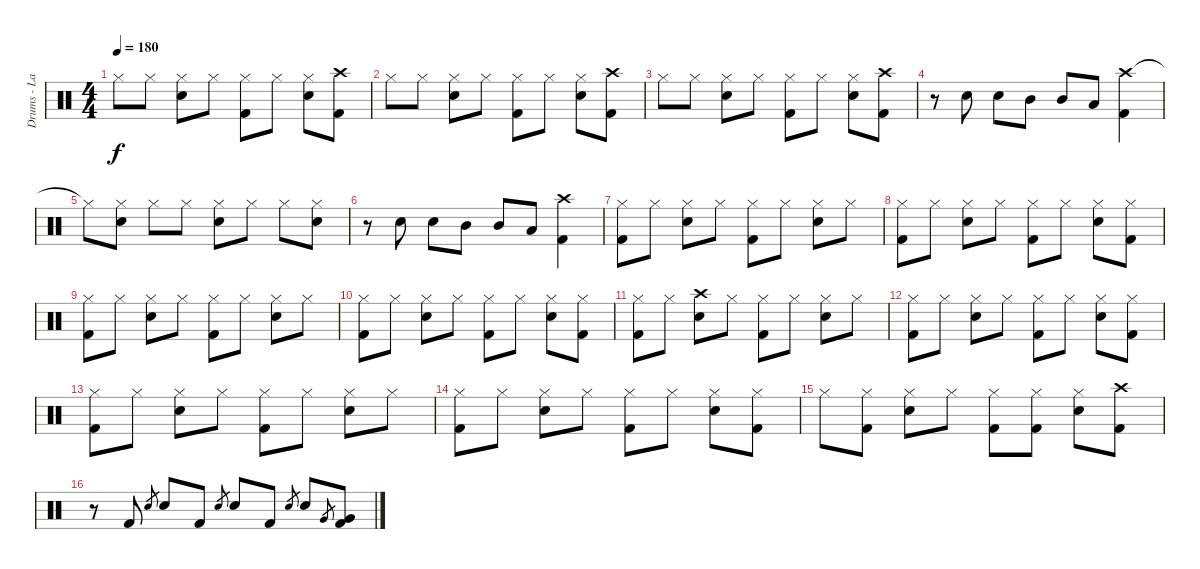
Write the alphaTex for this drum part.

\track ("Drums - Lars" "Drums - La") {instrument percussion}
\staff {score}
\articulation defaults
\ts (4 4)
\tempo 180
\clef neutral
\ks c "Hi-Hat (closed)".8{dy f} "Hi-Hat (closed)".8
("Hi-Hat (closed)" "Snare (hit) 2").8 "Hi-Hat (closed)".8 ("Hi-Hat (closed)" "Kick (hit) 2").8 "Hi-Hat (closed)".8 ("Hi-Hat (closed)" "Snare (hit) 2").8 ("Crash high (hit)" "Kick (hit) 2").8 |
"Hi-Hat (closed)".8 "Hi-Hat (closed)".8 ("Hi-Hat (closed)" "Snare (hit) 2").8 "Hi-Hat (closed)".8 ("Hi-Hat (closed)" "Kick (hit) 2").8 "Hi-Hat (closed)".8 ("Hi-Hat (closed)" "Snare (hit) 2").8 ("Crash high (hit)" "Kick (hit) 2").8 |
"Hi-Hat (closed)".8 "Hi-Hat (closed)".8 ("Hi-Hat (closed)" "Snare (hit) 2").8 "Hi-Hat (closed)".8 ("Hi-Hat (closed)" "Kick (hit) 2").8 "Hi-Hat (closed)".8 ("Hi-Hat (closed)" "Snare (hit) 2").8 ("Crash high (hit)" "Kick (hit) 2").8 |
r.8 "Snare (hit) 2".8 "Snare (hit) 2".8 "Mid Tom (hit)".8 "Mid Tom (hit)".8 "Low Tom (hit)".8 ("Crash high (hit)" "Kick (hit) 2").4 |
"Hi-Hat (closed)"{t}.8 ("Hi-Hat (closed)" "Snare (hit) 2").8 "Hi-Hat (closed)".8 "Hi-Hat (closed)".8 ("Hi-Hat (closed)" "Snare (hit) 2").8 "Hi-Hat (closed)".8 "Hi-Hat (closed)".8 ("Hi-Hat (closed)" "Snare (hit) 2").8 |
r.8 "Snare (hit) 2".8 "Snare (hit) 2".8 "Mid Tom (hit)".8 "Mid Tom (hit)".8 "Low Tom (hit)".8 ("Crash high (hit)" "Kick (hit) 2").4 |
("Hi-Hat (closed)" "Kick (hit) 2").8 "Hi-Hat (closed)".8 ("Hi-Hat (closed)" "Snare (hit) 2").8 "Hi-Hat (closed)".8 ("Hi-Hat (closed)" "Kick (hit) 2").8 "Hi-Hat (closed)".8 ("Hi-Hat (closed)" "Snare (hit) 2").8 "Hi-Hat (closed)".8 |
("Hi-Hat (closed)" "Kick (hit) 2").8 "Hi-Hat (closed)".8 ("Hi-Hat (closed)" "Snare (hit) 2").8 "Hi-Hat (closed)".8 ("Hi-Hat (closed)" "Kick (hit) 2").8 "Hi-Hat (closed)".8 ("Hi-Hat (closed)" "Snare (hit) 2").8 ("Hi-Hat (closed)" "Kick (hit) 2").8 |
("Hi-Hat (closed)" "Kick (hit) 2").8 "Hi-Hat (closed)".8 ("Hi-Hat (closed)" "Snare (hit) 2").8 "Hi-Hat (closed)".8 ("Hi-Hat (closed)" "Kick (hit) 2").8 "Hi-Hat (closed)".8 ("Hi-Hat (closed)" "Snare (hit) 2").8 "Hi-Hat (closed)".8 |
("Hi-Hat (closed)" "Kick (hit) 2").8 "Hi-Hat (closed)".8 ("Hi-Hat (closed)" "Snare (hit) 2").8 "Hi-Hat (closed)".8 ("Hi-Hat (closed)" "Kick (hit) 2").8 "Hi-Hat (closed)".8 ("Hi-Hat (closed)" "Snare (hit) 2").8 ("Hi-Hat (closed)" "Kick (hit) 2").8 |
("Hi-Hat (closed)" "Kick (hit) 2").8 "Hi-Hat (closed)".8 ("Crash high (hit)" "Snare (hit) 2").8 "Hi-Hat (closed)".8 ("Hi-Hat (closed)" "Kick (hit) 2").8 "Hi-Hat (closed)".8 ("Hi-Hat (closed)" "Snare (hit) 2").8 "Hi-Hat (closed)".8 |
("Hi-Hat (closed)" "Kick (hit) 2").8 "Hi-Hat (closed)".8 ("Hi-Hat (closed)" "Snare (hit) 2").8 "Hi-Hat (closed)".8 ("Hi-Hat (closed)" "Kick (hit) 2").8 "Hi-Hat (closed)".8 ("Hi-Hat (closed)" "Snare (hit) 2").8 ("Hi-Hat (closed)" "Kick (hit) 2").8 |
("Hi-Hat (closed)" "Kick (hit) 2").8 "Hi-Hat (closed)".8 ("Hi-Hat (closed)" "Snare (hit) 2").8 "Hi-Hat (closed)".8 ("Hi-Hat (closed)" "Kick (hit) 2").8 "Hi-Hat (closed)".8 ("Hi-Hat (closed)" "Snare (hit) 2").8 "Hi-Hat (closed)".8 |
("Hi-Hat (closed)" "Kick (hit) 2").8 "Hi-Hat (closed)".8 ("Hi-Hat (closed)" "Snare (hit) 2").8 "Hi-Hat (closed)".8 ("Hi-Hat (closed)" "Kick (hit) 2").8 "Hi-Hat (closed)".8 ("Hi-Hat (closed)" "Snare (hit) 2").8 ("Hi-Hat (closed)" "Kick (hit) 2").8 |
"Hi-Hat (closed)".8 ("Hi-Hat (closed)" "Kick (hit) 2").8 ("Hi-Hat (closed)" "Snare (hit) 2").8 "Hi-Hat (closed)".8 ("Hi-Hat (closed)" "Kick (hit) 2").8 ("Hi-Hat (closed)" "Kick (hit) 2").8 ("Hi-Hat (closed)" "Snare (hit) 2").8 ("Crash high (hit)" "Kick (hit) 2").8 |
r.8 "Kick (hit) 2".8 "Snare (hit) 2".8{gr} "Snare (hit) 2".8 "Kick (hit) 2".8 "Snare (hit) 2".8{gr} "Snare (hit) 2".8 "Kick (hit) 2".8 "Snare (hit) 2".8{gr} "Snare (hit) 2".8 "Very Low Tom (hit)".8{gr} ("Very Low Tom (hit)" "Kick (hit) 2").8
